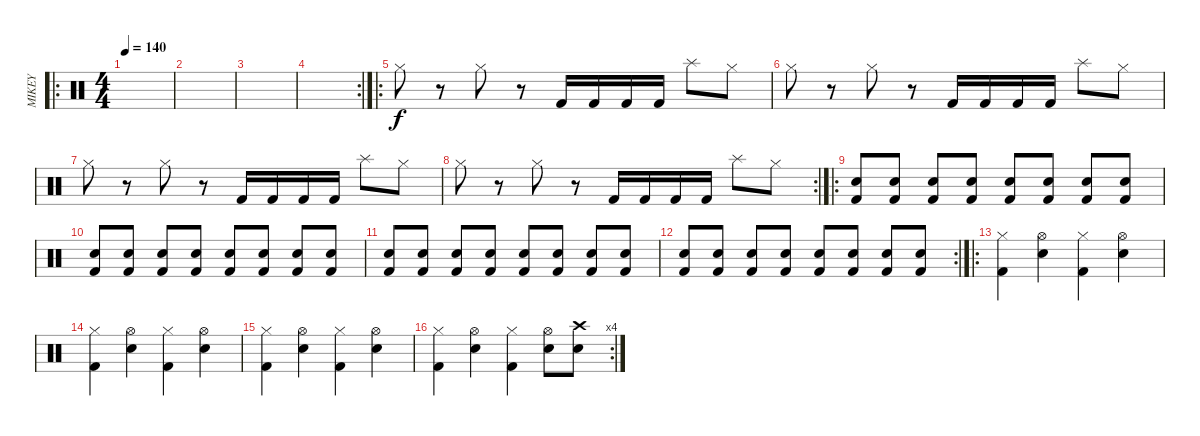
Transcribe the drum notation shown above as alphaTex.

\track ("MIKEY" "MIKEY") {instrument percussion}
\staff {score}
\articulation defaults
\ro
\ts (4 4)
\tempo 140
\clef neutral
\ks c
|
|
|
\rc 2
|
\ro "Hi-Hat (closed)".8
r.8 "Hi-Hat (closed)".8 r.8 "Kick (hit) 2".16 "Kick (hit) 2".16 "Kick (hit) 2".16 "Kick (hit) 2".16 "Splash (hit)".8 "Hi-Hat (closed)".8 |
"Hi-Hat (closed)".8 r.8 "Hi-Hat (closed)".8 r.8 "Kick (hit) 2".16 "Kick (hit) 2".16 "Kick (hit) 2".16 "Kick (hit) 2".16 "Splash (hit)".8 "Hi-Hat (closed)".8 |
"Hi-Hat (closed)".8 r.8 "Hi-Hat (closed)".8 r.8 "Kick (hit) 2".16 "Kick (hit) 2".16 "Kick (hit) 2".16 "Kick (hit) 2".16 "Splash (hit)".8 "Hi-Hat (closed)".8 |
\rc 2 "Hi-Hat (closed)".8
r.8 "Hi-Hat (closed)".8 r.8 "Kick (hit) 2".16 "Kick (hit) 2".16 "Kick (hit) 2".16 "Kick (hit) 2".16 "Splash (hit)".8 "Hi-Hat (closed)".8 |
\ro
("Kick (hit) 2" "Electric Snare (hit)").8 ("Kick (hit) 2" "Electric Snare (hit)").8 ("Kick (hit) 2" "Electric Snare (hit)").8 ("Kick (hit) 2" "Electric Snare (hit)").8 ("Kick (hit) 2" "Electric Snare (hit)").8 ("Kick (hit) 2" "Electric Snare (hit)").8 ("Kick (hit) 2" "Electric Snare (hit)").8 ("Kick (hit) 2" "Electric Snare (hit)").8 |
("Kick (hit) 2" "Electric Snare (hit)").8 ("Kick (hit) 2" "Electric Snare (hit)").8 ("Kick (hit) 2" "Electric Snare (hit)").8 ("Kick (hit) 2" "Electric Snare (hit)").8 ("Kick (hit) 2" "Electric Snare (hit)").8 ("Kick (hit) 2" "Electric Snare (hit)").8 ("Kick (hit) 2" "Electric Snare (hit)").8 ("Kick (hit) 2" "Electric Snare (hit)").8 |
("Kick (hit) 2" "Electric Snare (hit)").8 ("Kick (hit) 2" "Electric Snare (hit)").8 ("Kick (hit) 2" "Electric Snare (hit)").8 ("Kick (hit) 2" "Electric Snare (hit)").8 ("Kick (hit) 2" "Electric Snare (hit)").8 ("Kick (hit) 2" "Electric Snare (hit)").8 ("Kick (hit) 2" "Electric Snare (hit)").8 ("Kick (hit) 2" "Electric Snare (hit)").8 |
\rc 2
("Kick (hit) 2" "Electric Snare (hit)").8 ("Kick (hit) 2" "Electric Snare (hit)").8 ("Kick (hit) 2" "Electric Snare (hit)").8 ("Kick (hit) 2" "Electric Snare (hit)").8 ("Kick (hit) 2" "Electric Snare (hit)").8 ("Kick (hit) 2" "Electric Snare (hit)").8 ("Kick (hit) 2" "Electric Snare (hit)").8 ("Kick (hit) 2" "Electric Snare (hit)").8 |
\ro
("Hi-Hat (closed)" "Kick (hit) 2").4 ("Hi-Hat (open)" "Electric Snare (hit)").4 ("Hi-Hat (closed)" "Kick (hit) 2").4 ("Hi-Hat (open)" "Electric Snare (hit)").4 |
("Hi-Hat (closed)" "Kick (hit) 2").4 ("Hi-Hat (open)" "Electric Snare (hit)").4 ("Hi-Hat (closed)" "Kick (hit) 2").4 ("Hi-Hat (open)" "Electric Snare (hit)").4 |
("Hi-Hat (closed)" "Kick (hit) 2").4 ("Hi-Hat (open)" "Electric Snare (hit)").4 ("Hi-Hat (closed)" "Kick (hit) 2").4 ("Hi-Hat (open)" "Electric Snare (hit)").4 |
\rc 4
("Hi-Hat (closed)" "Kick (hit) 2").4 ("Hi-Hat (open)" "Electric Snare (hit)").4 ("Hi-Hat (closed)" "Kick (hit) 2").4 ("Hi-Hat (open)" "Electric Snare (hit)").8 ("Crash high (hit)" "Electric Snare (hit)").8
